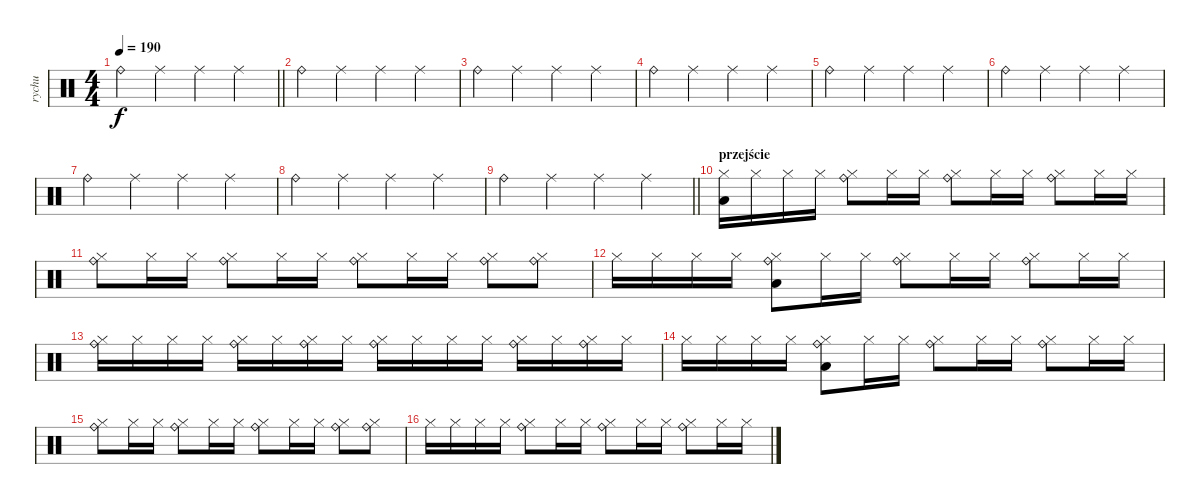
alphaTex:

\track ("rychu" "rychu") {instrument percussion}
\staff {score}
\articulation defaults
\ts (4 4)
\tempo 190
\clef neutral
\barLineRight lightlight
\ks c "Ride (bell)".4{dy f} "Ride (middle)".4 "Ride (middle)".4 "Ride (middle)".4
|
"Ride (bell)".4 "Ride (middle)".4 "Ride (middle)".4 "Ride (middle)".4 |
"Ride (bell)".4 "Ride (middle)".4 "Ride (middle)".4 "Ride (middle)".4 |
"Ride (bell)".4 "Ride (middle)".4 "Ride (middle)".4 "Ride (middle)".4 |
"Ride (bell)".4 "Ride (middle)".4 "Ride (middle)".4 "Ride (middle)".4 |
"Ride (bell)".4 "Ride (middle)".4 "Ride (middle)".4 "Ride (middle)".4 |
"Ride (bell)".4 "Ride (middle)".4 "Ride (middle)".4 "Ride (middle)".4 |
"Ride (bell)".4 "Ride (middle)".4 "Ride (middle)".4 "Ride (middle)".4 |
\barLineRight lightlight "Ride (bell)".4 "Ride (middle)".4 "Ride (middle)".4 "Ride (middle)".4
|
\section ("" "przejście")
("Low Tom (hit)" "Hi-Hat (closed)").16 "Hi-Hat (closed)".16 "Hi-Hat (closed)".16 "Hi-Hat (closed)".16 ("Ride (bell)" "Hi-Hat (closed)").8 "Hi-Hat (closed)".16 "Hi-Hat (closed)".16 ("Ride (bell)" "Hi-Hat (closed)").8 "Hi-Hat (closed)".16 "Hi-Hat (closed)".16 ("Ride (bell)" "Hi-Hat (closed)").8 "Hi-Hat (closed)".16 "Hi-Hat (closed)".16 |
("Ride (bell)" "Hi-Hat (closed)").8 "Hi-Hat (closed)".16 "Hi-Hat (closed)".16 ("Ride (bell)" "Hi-Hat (closed)").8 "Hi-Hat (closed)".16 "Hi-Hat (closed)".16 ("Ride (bell)" "Hi-Hat (closed)").8 "Hi-Hat (closed)".16 "Hi-Hat (closed)".16 ("Ride (bell)" "Hi-Hat (closed)").8 ("Ride (bell)" "Hi-Hat (closed)").8 |
"Hi-Hat (closed)".16 "Hi-Hat (closed)".16 "Hi-Hat (closed)".16 "Hi-Hat (closed)".16 ("Low Tom (hit)" "Ride (bell)" "Hi-Hat (closed)").8 "Hi-Hat (closed)".16 "Hi-Hat (closed)".16 ("Ride (bell)" "Hi-Hat (closed)").8 "Hi-Hat (closed)".16 "Hi-Hat (closed)".16 ("Ride (bell)" "Hi-Hat (closed)").8 "Hi-Hat (closed)".16 "Hi-Hat (closed)".16 |
("Ride (bell)" "Hi-Hat (closed)").16 "Hi-Hat (closed)".16 "Hi-Hat (closed)".16 "Hi-Hat (closed)".16 ("Ride (bell)" "Hi-Hat (closed)").16 "Hi-Hat (closed)".16 ("Ride (bell)" "Hi-Hat (closed)").16 "Hi-Hat (closed)".16 ("Ride (bell)" "Hi-Hat (closed)").16 "Hi-Hat (closed)".16 "Hi-Hat (closed)".16 "Hi-Hat (closed)".16 ("Ride (bell)" "Hi-Hat (closed)").16 "Hi-Hat (closed)".16 ("Ride (bell)" "Hi-Hat (closed)").16 "Hi-Hat (closed)".16 |
"Hi-Hat (closed)".16 "Hi-Hat (closed)".16 "Hi-Hat (closed)".16 "Hi-Hat (closed)".16 ("Low Tom (hit)" "Ride (bell)" "Hi-Hat (closed)").8 "Hi-Hat (closed)".16 "Hi-Hat (closed)".16 ("Ride (bell)" "Hi-Hat (closed)").8 "Hi-Hat (closed)".16 "Hi-Hat (closed)".16 ("Ride (bell)" "Hi-Hat (closed)").8 "Hi-Hat (closed)".16 "Hi-Hat (closed)".16 |
("Ride (bell)" "Hi-Hat (closed)").8 "Hi-Hat (closed)".16 "Hi-Hat (closed)".16 ("Ride (bell)" "Hi-Hat (closed)").8 "Hi-Hat (closed)".16 "Hi-Hat (closed)".16 ("Ride (bell)" "Hi-Hat (closed)").8 "Hi-Hat (closed)".16 "Hi-Hat (closed)".16 ("Ride (bell)" "Hi-Hat (closed)").8 ("Ride (bell)" "Hi-Hat (closed)").8 |
"Hi-Hat (closed)".16 "Hi-Hat (closed)".16 "Hi-Hat (closed)".16 "Hi-Hat (closed)".16 ("Ride (bell)" "Hi-Hat (closed)").8 "Hi-Hat (closed)".16 "Hi-Hat (closed)".16 ("Ride (bell)" "Hi-Hat (closed)").8 "Hi-Hat (closed)".16 "Hi-Hat (closed)".16 ("Ride (bell)" "Hi-Hat (closed)").8 "Hi-Hat (closed)".16 "Hi-Hat (closed)".16
